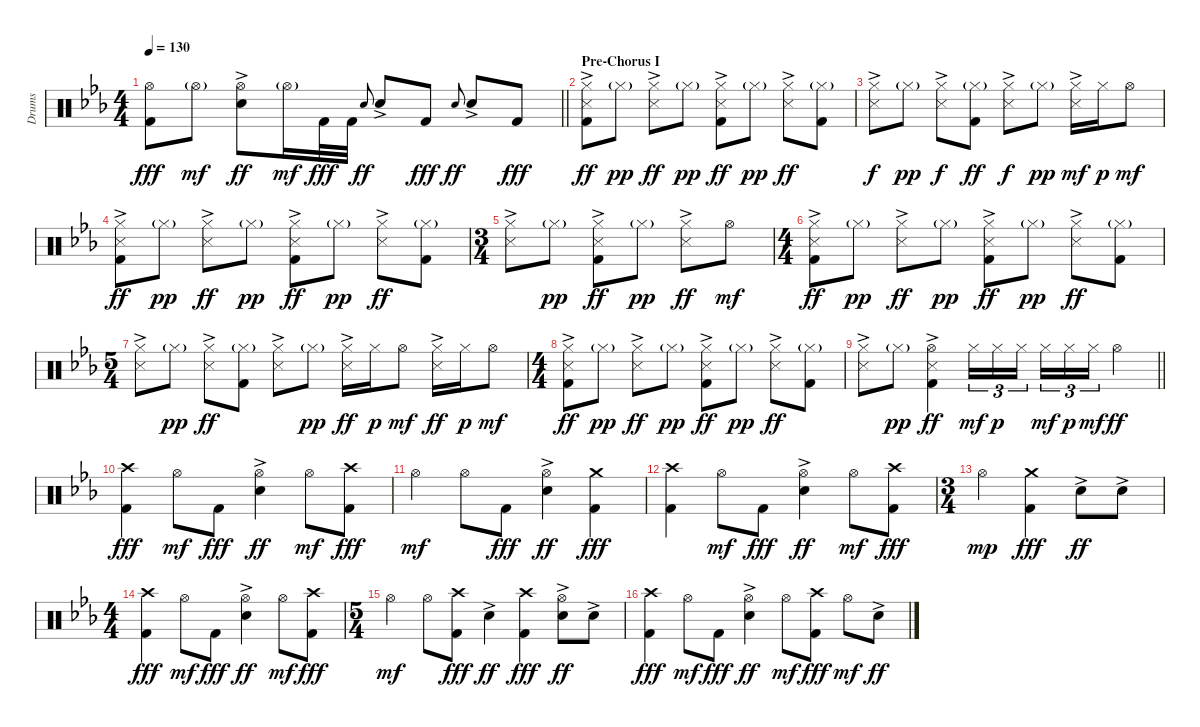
\track ("Drums" "Drums") {instrument percussion}
\staff {score}
\articulation defaults
\ts (4 4)
\tempo 130
\clef neutral
\barLineRight lightlight
\ks cminor
("Hi-Hat (open)" "Kick (hit) 2").8{dy fff} "Hi-Hat (open)"{g}.8{dy mf} ("Hi-Hat (open)" "Electric Snare (hit)"{ac}).8{dy ff} "Hi-Hat (open)"{g}.16{dy mf} "Kick (hit) 2".32{dy fff} "Kick (hit) 2".32 "Electric Snare (hit)".8{gr onbeat dy ff} "Electric Snare (hit)"{ac}.8 "Kick (hit) 2".8{dy fff} "Electric Snare (hit)".8{gr onbeat dy ff} "Electric Snare (hit)"{ac}.8 "Kick (hit) 2".8{dy fff} |
\section ("" "Pre-Chorus I")
("Hi-Hat (closed)" "Snare (side stick) 3"{ac} "Kick (hit) 2").8{dy ff} "Hi-Hat (closed)"{g}.8{dy pp} ("Hi-Hat (closed)" "Snare (side stick) 3"{ac}).8{dy ff} "Hi-Hat (closed)"{g}.8{dy pp} ("Hi-Hat (closed)" "Snare (side stick) 3"{ac} "Kick (hit) 2").8{dy ff} "Hi-Hat (closed)"{g}.8{dy pp} ("Hi-Hat (closed)" "Snare (side stick) 3"{ac}).8{dy ff} ("Hi-Hat (closed)"{g} "Kick (hit) 2").8 |
("Hi-Hat (closed)" "Snare (side stick) 3"{ac}).8{dy f} "Hi-Hat (closed)"{g}.8{dy pp} ("Hi-Hat (closed)" "Snare (side stick) 3"{ac}).8{dy f} ("Hi-Hat (closed)"{g} "Kick (hit) 2").8{dy ff} ("Hi-Hat (closed)" "Snare (side stick) 3"{ac}).8{dy f} "Hi-Hat (closed)"{g}.8{dy pp} ("Hi-Hat (closed)" "Snare (side stick) 3"{ac}).16{dy mf} "Hi-Hat (closed)".16{dy p} "Hi-Hat (open)".8{dy mf} |
("Hi-Hat (closed)" "Snare (side stick) 3"{ac} "Kick (hit) 2").8{dy ff} "Hi-Hat (closed)"{g}.8{dy pp} ("Hi-Hat (closed)" "Snare (side stick) 3"{ac}).8{dy ff} "Hi-Hat (closed)"{g}.8{dy pp} ("Hi-Hat (closed)" "Snare (side stick) 3"{ac} "Kick (hit) 2").8{dy ff} "Hi-Hat (closed)"{g}.8{dy pp} ("Hi-Hat (closed)" "Snare (side stick) 3"{ac}).8{dy ff} ("Hi-Hat (closed)"{g} "Kick (hit) 2").8 |
\ts (3 4)
("Hi-Hat (closed)" "Snare (side stick) 3"{ac}).8 "Hi-Hat (closed)"{g}.8{dy pp} ("Hi-Hat (closed)" "Snare (side stick) 3"{ac} "Kick (hit) 2").8{dy ff} "Hi-Hat (closed)"{g}.8{dy pp} ("Hi-Hat (closed)" "Snare (side stick) 3"{ac}).8{dy ff} "Hi-Hat (open)".8{dy mf} |
\ts (4 4)
("Hi-Hat (closed)" "Snare (side stick) 3"{ac} "Kick (hit) 2").8{dy ff} "Hi-Hat (closed)"{g}.8{dy pp} ("Hi-Hat (closed)" "Snare (side stick) 3"{ac}).8{dy ff} "Hi-Hat (closed)"{g}.8{dy pp} ("Hi-Hat (closed)" "Snare (side stick) 3"{ac} "Kick (hit) 2").8{dy ff} "Hi-Hat (closed)"{g}.8{dy pp} ("Hi-Hat (closed)" "Snare (side stick) 3"{ac}).8{dy ff} ("Hi-Hat (closed)"{g} "Kick (hit) 2").8 |
\ts (5 4)
("Hi-Hat (closed)" "Snare (side stick) 3"{ac}).8 "Hi-Hat (closed)"{g}.8{dy pp} ("Hi-Hat (closed)" "Snare (side stick) 3"{ac}).8{dy ff} ("Hi-Hat (closed)"{g} "Kick (hit) 2").8 ("Hi-Hat (closed)" "Snare (side stick) 3"{ac}).8 "Hi-Hat (closed)"{g}.8{dy pp} ("Hi-Hat (closed)" "Snare (side stick) 3"{ac}).16{dy ff} "Hi-Hat (closed)".16{dy p} "Hi-Hat (open)".8{dy mf} ("Hi-Hat (closed)" "Snare (side stick) 3"{ac}).16{dy ff} "Hi-Hat (closed)".16{dy p} "Hi-Hat (open)".8{dy mf} |
\ts (4 4)
("Hi-Hat (closed)" "Snare (side stick) 3"{ac} "Kick (hit) 2").8{dy ff} "Hi-Hat (closed)"{g}.8{dy pp} ("Hi-Hat (closed)" "Snare (side stick) 3"{ac}).8{dy ff} "Hi-Hat (closed)"{g}.8{dy pp} ("Hi-Hat (closed)" "Snare (side stick) 3"{ac} "Kick (hit) 2").8{dy ff} "Hi-Hat (closed)"{g}.8{dy pp} ("Hi-Hat (closed)" "Snare (side stick) 3"{ac}).8{dy ff} ("Hi-Hat (closed)"{g} "Kick (hit) 2").8 |
\barLineRight lightlight
("Hi-Hat (closed)" "Snare (side stick) 3"{ac}).8 "Hi-Hat (closed)"{g}.8{dy pp} ("Hi-Hat (open)" "Snare (side stick) 3"{ac} "Kick (hit) 2").4{dy ff} "Hi-Hat (closed)".16{tu (3 2) dy mf} "Hi-Hat (closed)".16{tu (3 2) dy p} "Hi-Hat (closed)".16{tu (3 2) beam splitsecondary} "Hi-Hat (closed)".16{tu (3 2) dy mf} "Hi-Hat (closed)".16{tu (3 2) dy p} "Hi-Hat (closed)".16{tu (3 2) dy mf} "Hi-Hat (open)".4{dy ff} |
("Crash high (hit)" "Kick (hit) 2").4{dy fff} "Hi-Hat (open)".8{dy mf} "Kick (hit) 2".8{dy fff} ("Hi-Hat (open)" "Electric Snare (hit)"{ac}).4{dy ff} "Hi-Hat (open)".8{dy mf} ("Crash high (hit)" "Kick (hit) 2").8{dy fff} |
"Hi-Hat (open)".4{dy mf} "Hi-Hat (open)".8 "Kick (hit) 2".8{dy fff} ("Hi-Hat (open)" "Electric Snare (hit)"{ac}).4{dy ff} ("Crash medium (hit)" "Kick (hit) 2").4{dy fff} |
("Crash high (hit)" "Kick (hit) 2").4 "Hi-Hat (open)".8{dy mf} "Kick (hit) 2".8{dy fff} ("Hi-Hat (open)" "Electric Snare (hit)"{ac}).4{dy ff} "Hi-Hat (open)".8{dy mf} ("Crash high (hit)" "Kick (hit) 2").8{dy fff} |
\ts (3 4)
"Hi-Hat (open)".4{dy mp} ("Crash medium (hit)" "Kick (hit) 2").4{dy fff} "Electric Snare (hit)"{ac}.8{dy ff} "Electric Snare (hit)"{ac}.8 |
\ts (4 4)
("Crash high (hit)" "Kick (hit) 2").4{dy fff} "Hi-Hat (open)".8{dy mf} "Kick (hit) 2".8{dy fff} ("Hi-Hat (open)" "Electric Snare (hit)"{ac}).4{dy ff} "Hi-Hat (open)".8{dy mf} ("Crash high (hit)" "Kick (hit) 2").8{dy fff} |
\ts (5 4)
"Hi-Hat (open)".4{dy mf} "Hi-Hat (open)".8 ("Crash high (hit)" "Kick (hit) 2").8{dy fff} "Electric Snare (hit)"{ac}.4{dy ff} ("Crash high (hit)" "Kick (hit) 2").4{dy fff} ("Hi-Hat (open)" "Electric Snare (hit)"{ac}).8{dy ff} "Electric Snare (hit)"{ac}.8 |
("Crash high (hit)" "Kick (hit) 2").4{dy fff} "Hi-Hat (open)".8{dy mf} "Kick (hit) 2".8{dy fff} ("Hi-Hat (open)" "Electric Snare (hit)"{ac}).4{dy ff} "Hi-Hat (open)".8{dy mf} ("Crash high (hit)" "Kick (hit) 2").8{dy fff} "Hi-Hat (open)".8{dy mf} "Electric Snare (hit)"{ac}.8{dy ff}
